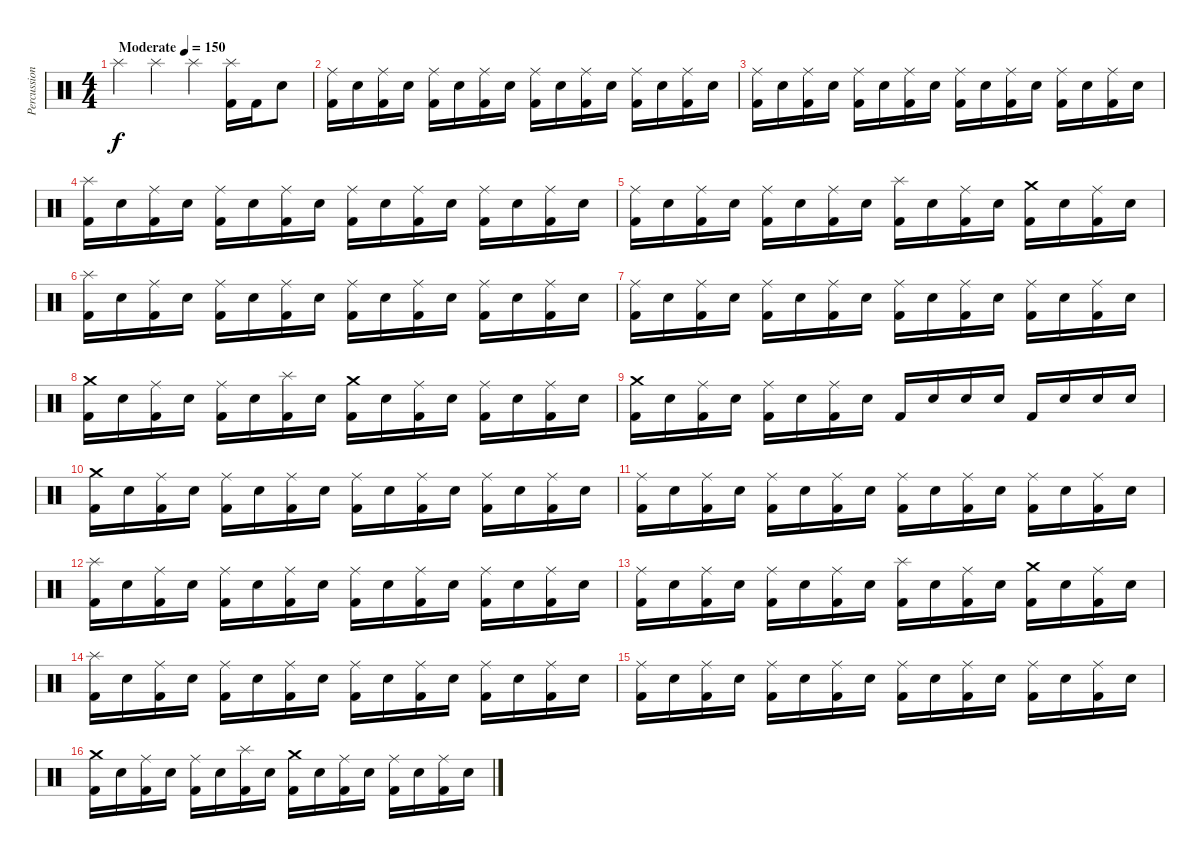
\track ("Percussions" "Percussion") {instrument percussion}
\staff {score}
\articulation defaults
\ts (4 4)
\tempo (150 "Moderate")
\clef neutral
\ks c "Splash (hit)".4{dy f} "Splash (hit)".4 "Splash (hit)".4
("Splash (hit)" "Kick (hit) 2").16 "Kick (hit) 2".16 "Snare (hit) 2".8 |
("Ride (middle)" "Kick (hit) 2").16 "Snare (hit) 2".16 ("Ride (middle)" "Kick (hit) 2").16 "Snare (hit) 2".16 ("Ride (middle)" "Kick (hit) 2").16 "Snare (hit) 2".16 ("Ride (middle)" "Kick (hit) 2").16 "Snare (hit) 2".16 ("Ride (middle)" "Kick (hit) 2").16 "Snare (hit) 2".16 ("Ride (middle)" "Kick (hit) 2").16 "Snare (hit) 2".16 ("Ride (middle)" "Kick (hit) 2").16 "Snare (hit) 2".16 ("Ride (middle)" "Kick (hit) 2").16 "Snare (hit) 2".16 |
("Ride (middle)" "Kick (hit) 2").16 "Snare (hit) 2".16 ("Ride (middle)" "Kick (hit) 2").16 "Snare (hit) 2".16 ("Ride (middle)" "Kick (hit) 2").16 "Snare (hit) 2".16 ("Ride (middle)" "Kick (hit) 2").16 "Snare (hit) 2".16 ("Ride (middle)" "Kick (hit) 2").16 "Snare (hit) 2".16 ("Ride (middle)" "Kick (hit) 2").16 "Snare (hit) 2".16 ("Ride (middle)" "Kick (hit) 2").16 "Snare (hit) 2".16 ("Ride (middle)" "Kick (hit) 2").16 "Snare (hit) 2".16 |
("Splash (hit)" "Kick (hit) 2").16 "Snare (hit) 2".16 ("Ride (middle)" "Kick (hit) 2").16 "Snare (hit) 2".16 ("Ride (middle)" "Kick (hit) 2").16 "Snare (hit) 2".16 ("Ride (middle)" "Kick (hit) 2").16 "Snare (hit) 2".16 ("Ride (middle)" "Kick (hit) 2").16 "Snare (hit) 2".16 ("Ride (middle)" "Kick (hit) 2").16 "Snare (hit) 2".16 ("Ride (middle)" "Kick (hit) 2").16 "Snare (hit) 2".16 ("Ride (middle)" "Kick (hit) 2").16 "Snare (hit) 2".16 |
("Ride (middle)" "Kick (hit) 2").16 "Snare (hit) 2".16 ("Ride (middle)" "Kick (hit) 2").16 "Snare (hit) 2".16 ("Ride (middle)" "Kick (hit) 2").16 "Snare (hit) 2".16 ("Ride (middle)" "Kick (hit) 2").16 "Snare (hit) 2".16 ("Splash (hit)" "Kick (hit) 2").16 "Snare (hit) 2".16 ("Ride (middle)" "Kick (hit) 2").16 "Snare (hit) 2".16 ("Crash medium (hit)" "Kick (hit) 2").16 "Snare (hit) 2".16 ("Ride (middle)" "Kick (hit) 2").16 "Snare (hit) 2".16 |
("Splash (hit)" "Kick (hit) 2").16 "Snare (hit) 2".16 ("Ride (middle)" "Kick (hit) 2").16 "Snare (hit) 2".16 ("Ride (middle)" "Kick (hit) 2").16 "Snare (hit) 2".16 ("Ride (middle)" "Kick (hit) 2").16 "Snare (hit) 2".16 ("Ride (middle)" "Kick (hit) 2").16 "Snare (hit) 2".16 ("Ride (middle)" "Kick (hit) 2").16 "Snare (hit) 2".16 ("Ride (middle)" "Kick (hit) 2").16 "Snare (hit) 2".16 ("Ride (middle)" "Kick (hit) 2").16 "Snare (hit) 2".16 |
("Ride (middle)" "Kick (hit) 2").16 "Snare (hit) 2".16 ("Ride (middle)" "Kick (hit) 2").16 "Snare (hit) 2".16 ("Ride (middle)" "Kick (hit) 2").16 "Snare (hit) 2".16 ("Ride (middle)" "Kick (hit) 2").16 "Snare (hit) 2".16 ("Ride (middle)" "Kick (hit) 2").16 "Snare (hit) 2".16 ("Ride (middle)" "Kick (hit) 2").16 "Snare (hit) 2".16 ("Ride (middle)" "Kick (hit) 2").16 "Snare (hit) 2".16 ("Ride (middle)" "Kick (hit) 2").16 "Snare (hit) 2".16 |
("Crash medium (hit)" "Kick (hit) 2").16 "Snare (hit) 2".16 ("Ride (middle)" "Kick (hit) 2").16 "Snare (hit) 2".16 ("Ride (middle)" "Kick (hit) 2").16 "Snare (hit) 2".16 ("Splash (hit)" "Kick (hit) 2").16 "Snare (hit) 2".16 ("Crash medium (hit)" "Kick (hit) 2").16 "Snare (hit) 2".16 ("Ride (middle)" "Kick (hit) 2").16 "Snare (hit) 2".16 ("Ride (middle)" "Kick (hit) 2").16 "Snare (hit) 2".16 ("Ride (middle)" "Kick (hit) 2").16 "Snare (hit) 2".16 |
("Crash medium (hit)" "Kick (hit) 2").16 "Snare (hit) 2".16 ("Ride (middle)" "Kick (hit) 2").16 "Snare (hit) 2".16 ("Ride (middle)" "Kick (hit) 2").16 "Snare (hit) 2".16 ("Ride (middle)" "Kick (hit) 2").16 "Snare (hit) 2".16 "Kick (hit) 2".16 "Snare (hit) 2".16 "Snare (hit) 2".16 "Snare (hit) 2".16 "Kick (hit) 2".16 "Snare (hit) 2".16 "Snare (hit) 2".16 "Snare (hit) 2".16 |
("Crash medium (hit)" "Kick (hit) 2").16 "Snare (hit) 2".16 ("Ride (middle)" "Kick (hit) 2").16 "Snare (hit) 2".16 ("Ride (middle)" "Kick (hit) 2").16 "Snare (hit) 2".16 ("Ride (middle)" "Kick (hit) 2").16 "Snare (hit) 2".16 ("Ride (middle)" "Kick (hit) 2").16 "Snare (hit) 2".16 ("Ride (middle)" "Kick (hit) 2").16 "Snare (hit) 2".16 ("Ride (middle)" "Kick (hit) 2").16 "Snare (hit) 2".16 ("Ride (middle)" "Kick (hit) 2").16 "Snare (hit) 2".16 |
("Ride (middle)" "Kick (hit) 2").16 "Snare (hit) 2".16 ("Ride (middle)" "Kick (hit) 2").16 "Snare (hit) 2".16 ("Ride (middle)" "Kick (hit) 2").16 "Snare (hit) 2".16 ("Ride (middle)" "Kick (hit) 2").16 "Snare (hit) 2".16 ("Ride (middle)" "Kick (hit) 2").16 "Snare (hit) 2".16 ("Ride (middle)" "Kick (hit) 2").16 "Snare (hit) 2".16 ("Ride (middle)" "Kick (hit) 2").16 "Snare (hit) 2".16 ("Ride (middle)" "Kick (hit) 2").16 "Snare (hit) 2".16 |
("Splash (hit)" "Kick (hit) 2").16 "Snare (hit) 2".16 ("Ride (middle)" "Kick (hit) 2").16 "Snare (hit) 2".16 ("Ride (middle)" "Kick (hit) 2").16 "Snare (hit) 2".16 ("Ride (middle)" "Kick (hit) 2").16 "Snare (hit) 2".16 ("Ride (middle)" "Kick (hit) 2").16 "Snare (hit) 2".16 ("Ride (middle)" "Kick (hit) 2").16 "Snare (hit) 2".16 ("Ride (middle)" "Kick (hit) 2").16 "Snare (hit) 2".16 ("Ride (middle)" "Kick (hit) 2").16 "Snare (hit) 2".16 |
("Ride (middle)" "Kick (hit) 2").16 "Snare (hit) 2".16 ("Ride (middle)" "Kick (hit) 2").16 "Snare (hit) 2".16 ("Ride (middle)" "Kick (hit) 2").16 "Snare (hit) 2".16 ("Ride (middle)" "Kick (hit) 2").16 "Snare (hit) 2".16 ("Splash (hit)" "Kick (hit) 2").16 "Snare (hit) 2".16 ("Ride (middle)" "Kick (hit) 2").16 "Snare (hit) 2".16 ("Crash medium (hit)" "Kick (hit) 2").16 "Snare (hit) 2".16 ("Ride (middle)" "Kick (hit) 2").16 "Snare (hit) 2".16 |
("Splash (hit)" "Kick (hit) 2").16 "Snare (hit) 2".16 ("Ride (middle)" "Kick (hit) 2").16 "Snare (hit) 2".16 ("Ride (middle)" "Kick (hit) 2").16 "Snare (hit) 2".16 ("Ride (middle)" "Kick (hit) 2").16 "Snare (hit) 2".16 ("Ride (middle)" "Kick (hit) 2").16 "Snare (hit) 2".16 ("Ride (middle)" "Kick (hit) 2").16 "Snare (hit) 2".16 ("Ride (middle)" "Kick (hit) 2").16 "Snare (hit) 2".16 ("Ride (middle)" "Kick (hit) 2").16 "Snare (hit) 2".16 |
("Ride (middle)" "Kick (hit) 2").16 "Snare (hit) 2".16 ("Ride (middle)" "Kick (hit) 2").16 "Snare (hit) 2".16 ("Ride (middle)" "Kick (hit) 2").16 "Snare (hit) 2".16 ("Ride (middle)" "Kick (hit) 2").16 "Snare (hit) 2".16 ("Ride (middle)" "Kick (hit) 2").16 "Snare (hit) 2".16 ("Ride (middle)" "Kick (hit) 2").16 "Snare (hit) 2".16 ("Ride (middle)" "Kick (hit) 2").16 "Snare (hit) 2".16 ("Ride (middle)" "Kick (hit) 2").16 "Snare (hit) 2".16 |
("Crash medium (hit)" "Kick (hit) 2").16 "Snare (hit) 2".16 ("Ride (middle)" "Kick (hit) 2").16 "Snare (hit) 2".16 ("Ride (middle)" "Kick (hit) 2").16 "Snare (hit) 2".16 ("Splash (hit)" "Kick (hit) 2").16 "Snare (hit) 2".16 ("Crash medium (hit)" "Kick (hit) 2").16 "Snare (hit) 2".16 ("Ride (middle)" "Kick (hit) 2").16 "Snare (hit) 2".16 ("Ride (middle)" "Kick (hit) 2").16 "Snare (hit) 2".16 ("Ride (middle)" "Kick (hit) 2").16 "Snare (hit) 2".16
